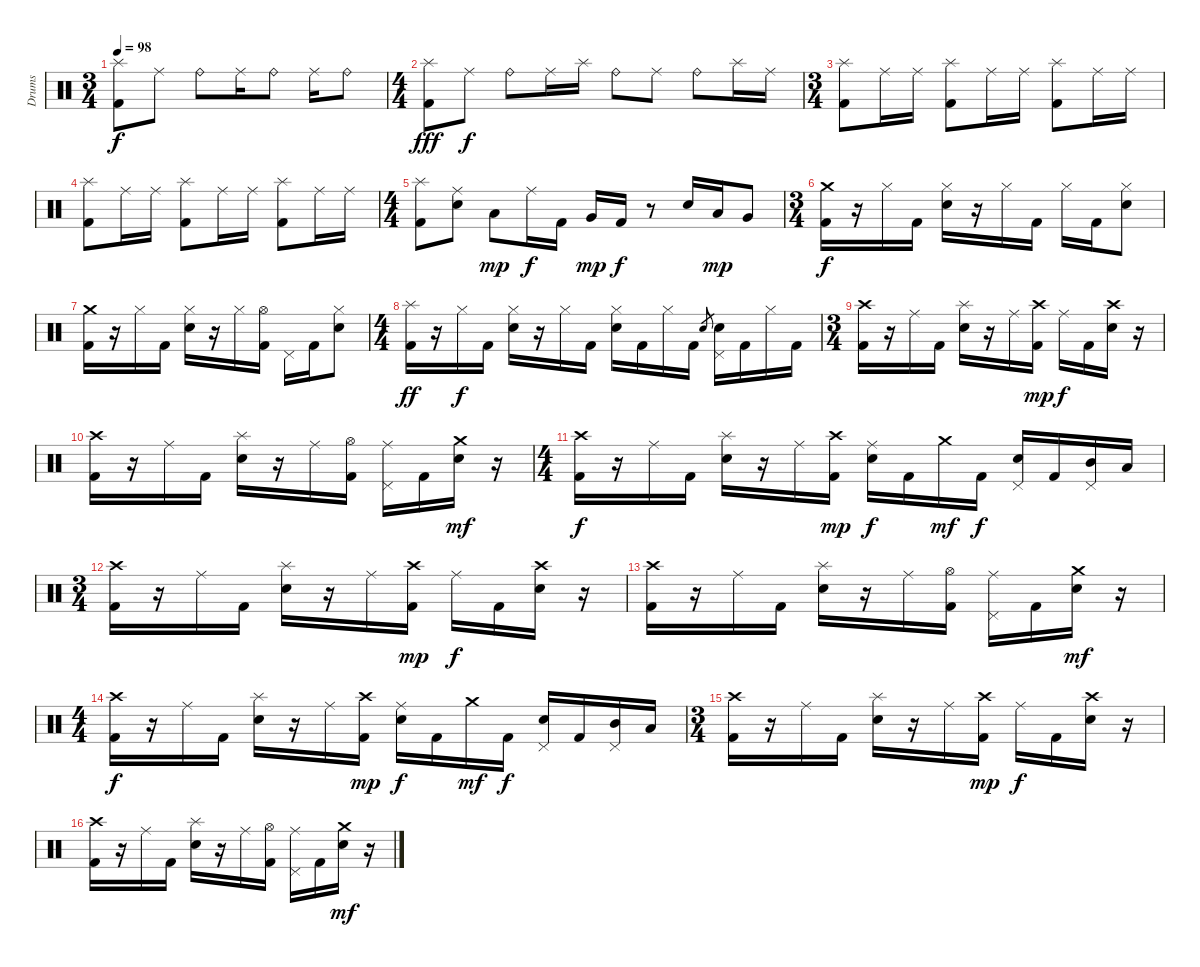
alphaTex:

\track ("Drums" "Drums") {instrument percussion}
\staff {score}
\articulation defaults
\ts (3 4)
\tempo 98
\clef neutral
\ks c
("Splash (hit)" "Kick (hit) 2").8{dy f} "Ride (middle)".8 "Ride (bell)".8 "Ride (middle)".16 "Ride (bell)".8 "Ride (middle)".16 "Ride (bell)".8 |
\ts (4 4)
("Splash (hit)" "Kick (hit) 2").8{dy fff} "Ride (middle)".8{dy f} "Ride (bell)".8 "Ride (middle)".16 "Splash (hit)".16 "Ride (bell)".8 "Ride (middle)".8 "Ride (bell)".8 "Splash (hit)".16 "Ride (middle)".16 |
\ts (3 4)
("Splash (hit)" "Kick (hit) 2").8 "Ride (middle)".16 "Ride (middle)".16 ("Splash (hit)" "Kick (hit) 2").8 "Ride (middle)".16 "Ride (middle)".16 ("Splash (hit)" "Kick (hit) 2").8 "Ride (middle)".16 "Ride (middle)".16 |
("Splash (hit)" "Kick (hit) 2").8 "Ride (middle)".16 "Ride (middle)".16 ("Splash (hit)" "Kick (hit) 2").8 "Ride (middle)".16 "Ride (middle)".16 ("Splash (hit)" "Kick (hit) 2").8 "Ride (middle)".16 "Ride (middle)".16 |
\ts (4 4)
("Splash (hit)" "Kick (hit) 2").8 ("Ride (middle)" "Snare (hit) 2").8 "Low Tom (hit)".8{dy mp} "Ride (middle)".16{dy f} "Kick (hit) 2".16 "Very Low Tom (hit)".16{dy mp} "Kick (hit) 2".16{dy f} r.8 "Snare (hit) 2".16 "Low Tom (hit)".16{dy mp} "Very Low Tom (hit)".8 |
\ts (3 4)
("Crash medium (hit)" "Kick (hit) 2").16{dy f} r.16 "Hi-Hat (closed)".16 "Kick (hit) 2".16 ("Hi-Hat (closed)" "Snare (hit) 2").16 r.16 "Hi-Hat (closed)".16 "Kick (hit) 2".16 "Hi-Hat (closed)".16 "Kick (hit) 2".16 ("Hi-Hat (closed)" "Snare (hit) 2").8 |
("Crash medium (hit)" "Kick (hit) 2").16 r.16 "Hi-Hat (closed)".16 "Kick (hit) 2".16 ("Hi-Hat (closed)" "Snare (hit) 2").16 r.16 "Hi-Hat (closed)".16 ("Hi-Hat (open)" "Kick (hit) 2").16 "Pedal Hi-Hat (hit)".16 "Kick (hit) 2".16 ("Hi-Hat (closed)" "Snare (hit) 2").8 |
\ts (4 4)
("Splash (hit)" "Kick (hit) 2").16{dy ff} r.16 "Hi-Hat (closed)".16{dy f} "Kick (hit) 2".16 ("Hi-Hat (closed)" "Snare (hit) 2").16 r.16 "Hi-Hat (closed)".16 "Kick (hit) 2".16 ("Hi-Hat (closed)" "Snare (hit) 2").16 "Kick (hit) 2".16 "Hi-Hat (closed)".16 "Kick (hit) 2".16 "Snare (hit) 2".8{gr} ("Pedal Hi-Hat (hit)" "Snare (hit) 2").16 "Kick (hit) 2".16 "Hi-Hat (closed)".16 "Kick (hit) 2".16 |
\ts (3 4)
("Crash high (hit)" "Kick (hit) 2").16 r.16 "Ride (middle)".16 "Kick (hit) 2".16 ("Splash (hit)" "Snare (hit) 2").16 r.16 "Ride (middle)".16 ("Crash high (hit)" "Kick (hit) 2").16{dy mp} "Ride (middle)".16{dy f} "Kick (hit) 2".16 ("Crash high (hit)" "Snare (hit) 2").16 r.16 |
("Crash high (hit)" "Kick (hit) 2").16 r.16 "Ride (middle)".16 "Kick (hit) 2".16 ("Splash (hit)" "Snare (hit) 2").16 r.16 "Ride (middle)".16 ("Hi-Hat (open)" "Kick (hit) 2").16 ("Ride (middle)" "Pedal Hi-Hat (hit)").16 "Kick (hit) 2".16 ("Crash medium (hit)" "Snare (hit) 2").16{dy mf} r.16 |
\ts (4 4)
("Crash high (hit)" "Kick (hit) 2").16{dy f} r.16 "Ride (middle)".16 "Kick (hit) 2".16 ("Splash (hit)" "Snare (hit) 2").16 r.16 "Ride (middle)".16 ("Crash high (hit)" "Kick (hit) 2").16{dy mp} ("Ride (middle)" "Snare (hit) 2").16{dy f} "Kick (hit) 2".16 "Crash medium (hit)".16{dy mf} "Kick (hit) 2".16{dy f} ("Pedal Hi-Hat (hit)" "Snare (hit) 2").16 "Kick (hit) 2".16 ("Pedal Hi-Hat (hit)" "Mid Tom (hit)").16 "Low Tom (hit)".16 |
\ts (3 4)
("Crash high (hit)" "Kick (hit) 2").16 r.16 "Ride (middle)".16 "Kick (hit) 2".16 ("Splash (hit)" "Snare (hit) 2").16 r.16 "Ride (middle)".16 ("Crash high (hit)" "Kick (hit) 2").16{dy mp} "Ride (middle)".16{dy f} "Kick (hit) 2".16 ("Crash high (hit)" "Snare (hit) 2").16 r.16 |
("Crash high (hit)" "Kick (hit) 2").16 r.16 "Ride (middle)".16 "Kick (hit) 2".16 ("Splash (hit)" "Snare (hit) 2").16 r.16 "Ride (middle)".16 ("Hi-Hat (open)" "Kick (hit) 2").16 ("Ride (middle)" "Pedal Hi-Hat (hit)").16 "Kick (hit) 2".16 ("Crash medium (hit)" "Snare (hit) 2").16{dy mf} r.16 |
\ts (4 4)
("Crash high (hit)" "Kick (hit) 2").16{dy f} r.16 "Ride (middle)".16 "Kick (hit) 2".16 ("Splash (hit)" "Snare (hit) 2").16 r.16 "Ride (middle)".16 ("Crash high (hit)" "Kick (hit) 2").16{dy mp} ("Ride (middle)" "Snare (hit) 2").16{dy f} "Kick (hit) 2".16 "Crash medium (hit)".16{dy mf} "Kick (hit) 2".16{dy f} ("Pedal Hi-Hat (hit)" "Snare (hit) 2").16 "Kick (hit) 2".16 ("Pedal Hi-Hat (hit)" "Mid Tom (hit)").16 "Low Tom (hit)".16 |
\ts (3 4)
("Crash high (hit)" "Kick (hit) 2").16 r.16 "Ride (middle)".16 "Kick (hit) 2".16 ("Splash (hit)" "Snare (hit) 2").16 r.16 "Ride (middle)".16 ("Crash high (hit)" "Kick (hit) 2").16{dy mp} "Ride (middle)".16{dy f} "Kick (hit) 2".16 ("Crash high (hit)" "Snare (hit) 2").16 r.16 |
("Crash high (hit)" "Kick (hit) 2").16 r.16 "Ride (middle)".16 "Kick (hit) 2".16 ("Splash (hit)" "Snare (hit) 2").16 r.16 "Ride (middle)".16 ("Hi-Hat (open)" "Kick (hit) 2").16 ("Ride (middle)" "Pedal Hi-Hat (hit)").16 "Kick (hit) 2".16 ("Crash medium (hit)" "Snare (hit) 2").16{dy mf} r.16
